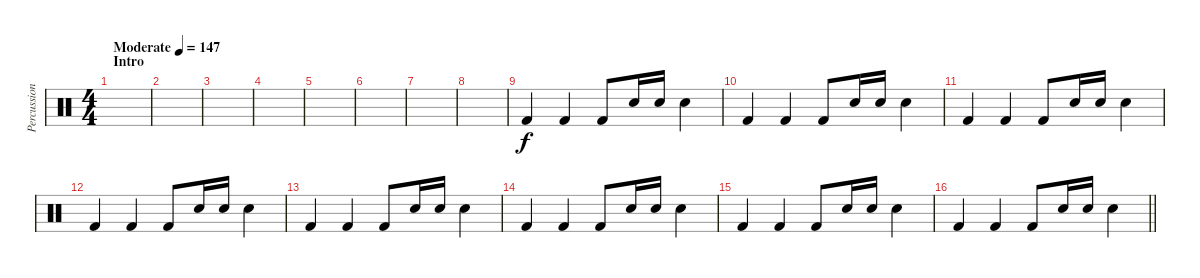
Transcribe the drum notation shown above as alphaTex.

\track ("Percussion" "Percussion") {instrument percussion}
\staff {score}
\articulation defaults
\ts (4 4)
\section ("" "Intro")
\tempo (147 "Moderate")
\clef neutral
\ks c
|
|
|
|
|
|
|
|
"Kick (hit) 2".4 "Kick (hit) 2".4 "Kick (hit) 2".8 "Electric Snare (hit)".16 "Electric Snare (hit)".16 "Electric Snare (hit)".4 |
"Kick (hit) 2".4 "Kick (hit) 2".4 "Kick (hit) 2".8 "Electric Snare (hit)".16 "Electric Snare (hit)".16 "Electric Snare (hit)".4 |
"Kick (hit) 2".4 "Kick (hit) 2".4 "Kick (hit) 2".8 "Electric Snare (hit)".16 "Electric Snare (hit)".16 "Electric Snare (hit)".4 |
"Kick (hit) 2".4 "Kick (hit) 2".4 "Kick (hit) 2".8 "Electric Snare (hit)".16 "Electric Snare (hit)".16 "Electric Snare (hit)".4 |
"Kick (hit) 2".4 "Kick (hit) 2".4 "Kick (hit) 2".8 "Electric Snare (hit)".16 "Electric Snare (hit)".16 "Electric Snare (hit)".4 |
"Kick (hit) 2".4 "Kick (hit) 2".4 "Kick (hit) 2".8 "Electric Snare (hit)".16 "Electric Snare (hit)".16 "Electric Snare (hit)".4 |
"Kick (hit) 2".4 "Kick (hit) 2".4 "Kick (hit) 2".8 "Electric Snare (hit)".16 "Electric Snare (hit)".16 "Electric Snare (hit)".4 |
\barLineRight lightlight "Kick (hit) 2".4 "Kick (hit) 2".4 "Kick (hit) 2".8 "Electric Snare (hit)".16 "Electric Snare (hit)".16 "Electric Snare (hit)".4
